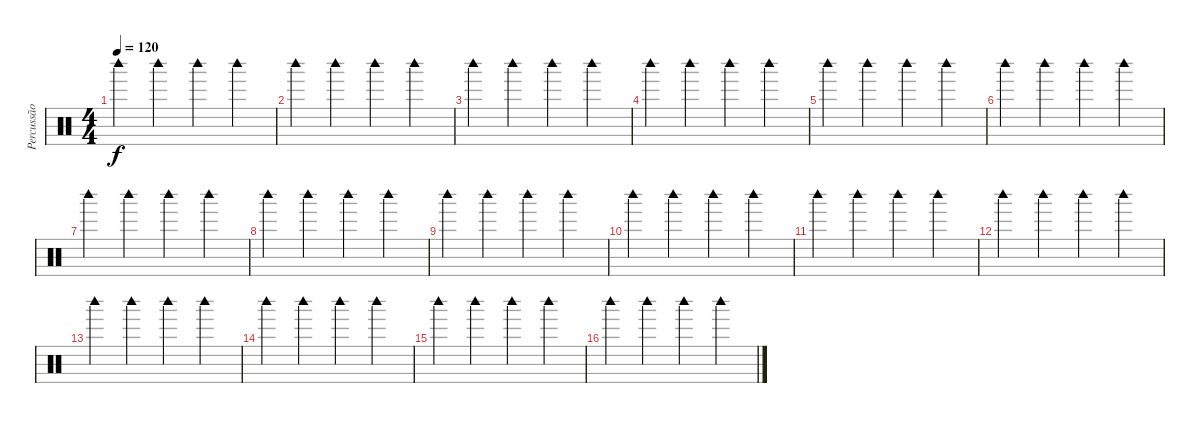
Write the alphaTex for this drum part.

\track ("Percussão" "Percussão") {instrument percussion}
\staff {score}
\articulation defaults
\ts (4 4)
\tempo 120
\clef neutral
\ks c "Woodblock high (hit)".4{dy f} "Woodblock high (hit)".4 "Woodblock high (hit)".4 "Woodblock high (hit)".4
|
"Woodblock high (hit)".4 "Woodblock high (hit)".4 "Woodblock high (hit)".4 "Woodblock high (hit)".4 |
"Woodblock high (hit)".4 "Woodblock high (hit)".4 "Woodblock high (hit)".4 "Woodblock high (hit)".4 |
"Woodblock high (hit)".4 "Woodblock high (hit)".4 "Woodblock high (hit)".4 "Woodblock high (hit)".4 |
"Woodblock high (hit)".4 "Woodblock high (hit)".4 "Woodblock high (hit)".4 "Woodblock high (hit)".4 |
"Woodblock high (hit)".4 "Woodblock high (hit)".4 "Woodblock high (hit)".4 "Woodblock high (hit)".4 |
"Woodblock high (hit)".4 "Woodblock high (hit)".4 "Woodblock high (hit)".4 "Woodblock high (hit)".4 |
"Woodblock high (hit)".4 "Woodblock high (hit)".4 "Woodblock high (hit)".4 "Woodblock high (hit)".4 |
"Woodblock high (hit)".4 "Woodblock high (hit)".4 "Woodblock high (hit)".4 "Woodblock high (hit)".4 |
"Woodblock high (hit)".4 "Woodblock high (hit)".4 "Woodblock high (hit)".4 "Woodblock high (hit)".4 |
"Woodblock high (hit)".4 "Woodblock high (hit)".4 "Woodblock high (hit)".4 "Woodblock high (hit)".4 |
"Woodblock high (hit)".4 "Woodblock high (hit)".4 "Woodblock high (hit)".4 "Woodblock high (hit)".4 |
"Woodblock high (hit)".4 "Woodblock high (hit)".4 "Woodblock high (hit)".4 "Woodblock high (hit)".4 |
"Woodblock high (hit)".4 "Woodblock high (hit)".4 "Woodblock high (hit)".4 "Woodblock high (hit)".4 |
"Woodblock high (hit)".4 "Woodblock high (hit)".4 "Woodblock high (hit)".4 "Woodblock high (hit)".4 |
"Woodblock high (hit)".4 "Woodblock high (hit)".4 "Woodblock high (hit)".4 "Woodblock high (hit)".4
